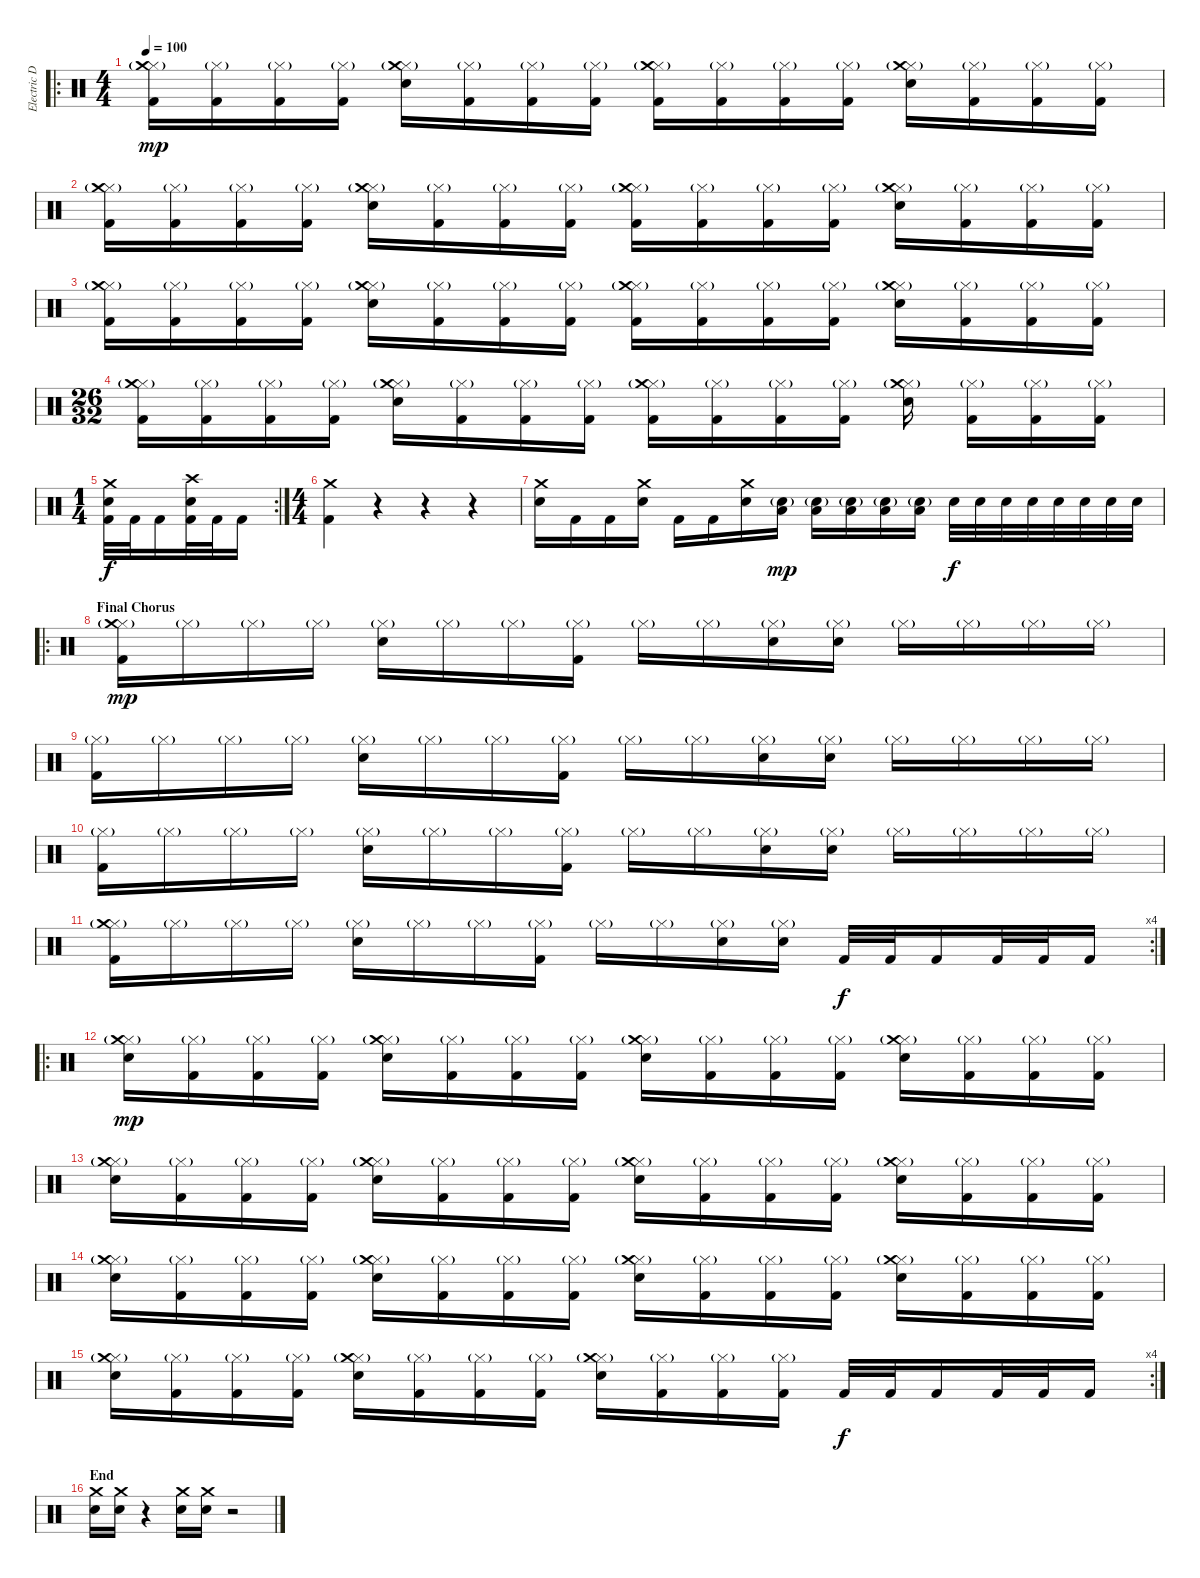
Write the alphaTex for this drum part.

\track ("Electric Drums" "Electric D") {instrument percussion}
\staff {score}
\articulation defaults
\ro
\ts (4 4)
\tempo 100
\clef neutral
\ks c
("Hi-Hat (closed)"{g} "Kick (hit) 2" "Crash medium (hit)").16{dy mp} ("Hi-Hat (closed)"{g} "Kick (hit) 2").16 ("Hi-Hat (closed)"{g} "Kick (hit) 2").16 ("Hi-Hat (closed)"{g} "Kick (hit) 2").16 ("Hi-Hat (closed)"{g} "Snare (hit) 2" "Crash medium (hit)").16 ("Hi-Hat (closed)"{g} "Kick (hit) 2").16 ("Hi-Hat (closed)"{g} "Kick (hit) 2").16 ("Hi-Hat (closed)"{g} "Kick (hit) 2").16 ("Hi-Hat (closed)"{g} "Kick (hit) 2" "Crash medium (hit)").16 ("Hi-Hat (closed)"{g} "Kick (hit) 2").16 ("Hi-Hat (closed)"{g} "Kick (hit) 2").16 ("Hi-Hat (closed)"{g} "Kick (hit) 2").16 ("Hi-Hat (closed)"{g} "Snare (hit) 2" "Crash medium (hit)").16 ("Hi-Hat (closed)"{g} "Kick (hit) 2").16 ("Hi-Hat (closed)"{g} "Kick (hit) 2").16 ("Hi-Hat (closed)"{g} "Kick (hit) 2").16 |
("Hi-Hat (closed)"{g} "Kick (hit) 2" "Crash medium (hit)").16 ("Hi-Hat (closed)"{g} "Kick (hit) 2").16 ("Hi-Hat (closed)"{g} "Kick (hit) 2").16 ("Hi-Hat (closed)"{g} "Kick (hit) 2").16 ("Hi-Hat (closed)"{g} "Snare (hit) 2" "Crash medium (hit)").16 ("Hi-Hat (closed)"{g} "Kick (hit) 2").16 ("Hi-Hat (closed)"{g} "Kick (hit) 2").16 ("Hi-Hat (closed)"{g} "Kick (hit) 2").16 ("Hi-Hat (closed)"{g} "Kick (hit) 2" "Crash medium (hit)").16 ("Hi-Hat (closed)"{g} "Kick (hit) 2").16 ("Hi-Hat (closed)"{g} "Kick (hit) 2").16 ("Hi-Hat (closed)"{g} "Kick (hit) 2").16 ("Hi-Hat (closed)"{g} "Snare (hit) 2" "Crash medium (hit)").16 ("Hi-Hat (closed)"{g} "Kick (hit) 2").16 ("Hi-Hat (closed)"{g} "Kick (hit) 2").16 ("Hi-Hat (closed)"{g} "Kick (hit) 2").16 |
("Hi-Hat (closed)"{g} "Kick (hit) 2" "Crash medium (hit)").16 ("Hi-Hat (closed)"{g} "Kick (hit) 2").16 ("Hi-Hat (closed)"{g} "Kick (hit) 2").16 ("Hi-Hat (closed)"{g} "Kick (hit) 2").16 ("Hi-Hat (closed)"{g} "Snare (hit) 2" "Crash medium (hit)").16 ("Hi-Hat (closed)"{g} "Kick (hit) 2").16 ("Hi-Hat (closed)"{g} "Kick (hit) 2").16 ("Hi-Hat (closed)"{g} "Kick (hit) 2").16 ("Hi-Hat (closed)"{g} "Kick (hit) 2" "Crash medium (hit)").16 ("Hi-Hat (closed)"{g} "Kick (hit) 2").16 ("Hi-Hat (closed)"{g} "Kick (hit) 2").16 ("Hi-Hat (closed)"{g} "Kick (hit) 2").16 ("Hi-Hat (closed)"{g} "Snare (hit) 2" "Crash medium (hit)").16 ("Hi-Hat (closed)"{g} "Kick (hit) 2").16 ("Hi-Hat (closed)"{g} "Kick (hit) 2").16 ("Hi-Hat (closed)"{g} "Kick (hit) 2").16 |
\ts (26 32)
("Hi-Hat (closed)"{g} "Kick (hit) 2" "Crash medium (hit)").16 ("Hi-Hat (closed)"{g} "Kick (hit) 2").16 ("Hi-Hat (closed)"{g} "Kick (hit) 2").16 ("Hi-Hat (closed)"{g} "Kick (hit) 2").16 ("Hi-Hat (closed)"{g} "Snare (hit) 2" "Crash medium (hit)").16 ("Hi-Hat (closed)"{g} "Kick (hit) 2").16 ("Hi-Hat (closed)"{g} "Kick (hit) 2").16 ("Hi-Hat (closed)"{g} "Kick (hit) 2").16 ("Hi-Hat (closed)"{g} "Kick (hit) 2" "Crash medium (hit)").16 ("Hi-Hat (closed)"{g} "Kick (hit) 2").16 ("Hi-Hat (closed)"{g} "Kick (hit) 2").16 ("Hi-Hat (closed)"{g} "Kick (hit) 2").16 ("Hi-Hat (closed)"{g} "Snare (hit) 2" "Crash medium (hit)").16 ("Hi-Hat (closed)"{g} "Kick (hit) 2").16 ("Hi-Hat (closed)"{g} "Kick (hit) 2").16 ("Hi-Hat (closed)"{g} "Kick (hit) 2").16 |
\rc 2
\ts (1 4)
("Crash medium (hit)" "Snare (hit) 2" "Kick (hit) 2").32{dy f} "Kick (hit) 2".32 "Kick (hit) 2".16 ("Crash high (hit)" "Snare (hit) 2" "Kick (hit) 2").32 "Kick (hit) 2".32 "Kick (hit) 2".16 |
\ts (4 4)
("Crash medium (hit)" "Kick (hit) 2").4{volume 0} r.4 r.4 r.4{volume 13} |
("Snare (hit) 2" "Crash medium (hit)").16 "Kick (hit) 2".16 "Kick (hit) 2".16 ("Snare (hit) 2" "Crash medium (hit)").16 "Kick (hit) 2".16 "Kick (hit) 2".16 ("Snare (hit) 2" "Crash medium (hit)").16 ("Low Floor Tom (hit)" "Snare (hit) 2"{g}).16{dy mp} ("Low Floor Tom (hit)" "Snare (hit) 2"{g}).16 ("Low Floor Tom (hit)" "Snare (hit) 2"{g}).16 ("Low Floor Tom (hit)" "Snare (hit) 2"{g}).16 ("Low Floor Tom (hit)" "Snare (hit) 2"{g}).16 "Snare (hit) 2".32{dy f} "Snare (hit) 2".32 "Snare (hit) 2".32 "Snare (hit) 2".32 "Snare (hit) 2".32 "Snare (hit) 2".32 "Snare (hit) 2".32 "Snare (hit) 2".32 |
\ro
\section ("" "Final Chorus")
("Hi-Hat (closed)"{g} "Kick (hit) 2" "Crash medium (hit)").16{dy mp} "Hi-Hat (closed)"{g}.16 "Hi-Hat (closed)"{g}.16 "Hi-Hat (closed)"{g}.16 ("Hi-Hat (closed)"{g} "Snare (hit) 2").16 "Hi-Hat (closed)"{g}.16 "Hi-Hat (closed)"{g}.16 ("Hi-Hat (closed)"{g} "Kick (hit) 2").16 "Hi-Hat (closed)"{g}.16 "Hi-Hat (closed)"{g}.16 ("Hi-Hat (closed)"{g} "Snare (hit) 2").16 ("Hi-Hat (closed)"{g} "Snare (hit) 2").16 "Hi-Hat (closed)"{g}.16 "Hi-Hat (closed)"{g}.16 "Hi-Hat (closed)"{g}.16 "Hi-Hat (closed)"{g}.16 |
("Hi-Hat (closed)"{g} "Kick (hit) 2").16 "Hi-Hat (closed)"{g}.16 "Hi-Hat (closed)"{g}.16 "Hi-Hat (closed)"{g}.16 ("Hi-Hat (closed)"{g} "Snare (hit) 2").16 "Hi-Hat (closed)"{g}.16 "Hi-Hat (closed)"{g}.16 ("Hi-Hat (closed)"{g} "Kick (hit) 2").16 "Hi-Hat (closed)"{g}.16 "Hi-Hat (closed)"{g}.16 ("Hi-Hat (closed)"{g} "Snare (hit) 2").16 ("Hi-Hat (closed)"{g} "Snare (hit) 2").16 "Hi-Hat (closed)"{g}.16 "Hi-Hat (closed)"{g}.16 "Hi-Hat (closed)"{g}.16 "Hi-Hat (closed)"{g}.16 |
("Hi-Hat (closed)"{g} "Kick (hit) 2").16 "Hi-Hat (closed)"{g}.16 "Hi-Hat (closed)"{g}.16 "Hi-Hat (closed)"{g}.16 ("Hi-Hat (closed)"{g} "Snare (hit) 2").16 "Hi-Hat (closed)"{g}.16 "Hi-Hat (closed)"{g}.16 ("Hi-Hat (closed)"{g} "Kick (hit) 2").16 "Hi-Hat (closed)"{g}.16 "Hi-Hat (closed)"{g}.16 ("Hi-Hat (closed)"{g} "Snare (hit) 2").16 ("Hi-Hat (closed)"{g} "Snare (hit) 2").16 "Hi-Hat (closed)"{g}.16 "Hi-Hat (closed)"{g}.16 "Hi-Hat (closed)"{g}.16 "Hi-Hat (closed)"{g}.16 |
\rc 4
("Hi-Hat (closed)"{g} "Kick (hit) 2" "Crash medium (hit)").16 "Hi-Hat (closed)"{g}.16 "Hi-Hat (closed)"{g}.16 "Hi-Hat (closed)"{g}.16 ("Hi-Hat (closed)"{g} "Snare (hit) 2").16 "Hi-Hat (closed)"{g}.16 "Hi-Hat (closed)"{g}.16 ("Hi-Hat (closed)"{g} "Kick (hit) 2").16 "Hi-Hat (closed)"{g}.16 "Hi-Hat (closed)"{g}.16 ("Hi-Hat (closed)"{g} "Snare (hit) 2").16 ("Hi-Hat (closed)"{g} "Snare (hit) 2").16 "Kick (hit) 2".32{dy f} "Kick (hit) 2".32 "Kick (hit) 2".16 "Kick (hit) 2".32 "Kick (hit) 2".32 "Kick (hit) 2".16 |
\ro
("Hi-Hat (closed)"{g} "Snare (hit) 2" "Crash medium (hit)").16{dy mp} ("Hi-Hat (closed)"{g} "Kick (hit) 2").16 ("Hi-Hat (closed)"{g} "Kick (hit) 2").16 ("Hi-Hat (closed)"{g} "Kick (hit) 2").16 ("Hi-Hat (closed)"{g} "Snare (hit) 2" "Crash medium (hit)").16 ("Hi-Hat (closed)"{g} "Kick (hit) 2").16 ("Hi-Hat (closed)"{g} "Kick (hit) 2").16 ("Hi-Hat (closed)"{g} "Kick (hit) 2").16 ("Hi-Hat (closed)"{g} "Snare (hit) 2" "Crash medium (hit)").16 ("Hi-Hat (closed)"{g} "Kick (hit) 2").16 ("Hi-Hat (closed)"{g} "Kick (hit) 2").16 ("Hi-Hat (closed)"{g} "Kick (hit) 2").16 ("Hi-Hat (closed)"{g} "Snare (hit) 2" "Crash medium (hit)").16 ("Hi-Hat (closed)"{g} "Kick (hit) 2").16 ("Hi-Hat (closed)"{g} "Kick (hit) 2").16 ("Hi-Hat (closed)"{g} "Kick (hit) 2").16 |
("Hi-Hat (closed)"{g} "Snare (hit) 2" "Crash medium (hit)").16 ("Hi-Hat (closed)"{g} "Kick (hit) 2").16 ("Hi-Hat (closed)"{g} "Kick (hit) 2").16 ("Hi-Hat (closed)"{g} "Kick (hit) 2").16 ("Hi-Hat (closed)"{g} "Snare (hit) 2" "Crash medium (hit)").16 ("Hi-Hat (closed)"{g} "Kick (hit) 2").16 ("Hi-Hat (closed)"{g} "Kick (hit) 2").16 ("Hi-Hat (closed)"{g} "Kick (hit) 2").16 ("Hi-Hat (closed)"{g} "Snare (hit) 2" "Crash medium (hit)").16 ("Hi-Hat (closed)"{g} "Kick (hit) 2").16 ("Hi-Hat (closed)"{g} "Kick (hit) 2").16 ("Hi-Hat (closed)"{g} "Kick (hit) 2").16 ("Hi-Hat (closed)"{g} "Snare (hit) 2" "Crash medium (hit)").16 ("Hi-Hat (closed)"{g} "Kick (hit) 2").16 ("Hi-Hat (closed)"{g} "Kick (hit) 2").16 ("Hi-Hat (closed)"{g} "Kick (hit) 2").16 |
("Hi-Hat (closed)"{g} "Snare (hit) 2" "Crash medium (hit)").16 ("Hi-Hat (closed)"{g} "Kick (hit) 2").16 ("Hi-Hat (closed)"{g} "Kick (hit) 2").16 ("Hi-Hat (closed)"{g} "Kick (hit) 2").16 ("Hi-Hat (closed)"{g} "Snare (hit) 2" "Crash medium (hit)").16 ("Hi-Hat (closed)"{g} "Kick (hit) 2").16 ("Hi-Hat (closed)"{g} "Kick (hit) 2").16 ("Hi-Hat (closed)"{g} "Kick (hit) 2").16 ("Hi-Hat (closed)"{g} "Snare (hit) 2" "Crash medium (hit)").16 ("Hi-Hat (closed)"{g} "Kick (hit) 2").16 ("Hi-Hat (closed)"{g} "Kick (hit) 2").16 ("Hi-Hat (closed)"{g} "Kick (hit) 2").16 ("Hi-Hat (closed)"{g} "Snare (hit) 2" "Crash medium (hit)").16 ("Hi-Hat (closed)"{g} "Kick (hit) 2").16 ("Hi-Hat (closed)"{g} "Kick (hit) 2").16 ("Hi-Hat (closed)"{g} "Kick (hit) 2").16 |
\rc 4
("Hi-Hat (closed)"{g} "Snare (hit) 2" "Crash medium (hit)").16 ("Hi-Hat (closed)"{g} "Kick (hit) 2").16 ("Hi-Hat (closed)"{g} "Kick (hit) 2").16 ("Hi-Hat (closed)"{g} "Kick (hit) 2").16 ("Hi-Hat (closed)"{g} "Snare (hit) 2" "Crash medium (hit)").16 ("Hi-Hat (closed)"{g} "Kick (hit) 2").16 ("Hi-Hat (closed)"{g} "Kick (hit) 2").16 ("Hi-Hat (closed)"{g} "Kick (hit) 2").16 ("Hi-Hat (closed)"{g} "Snare (hit) 2" "Crash medium (hit)").16 ("Hi-Hat (closed)"{g} "Kick (hit) 2").16 ("Hi-Hat (closed)"{g} "Kick (hit) 2").16 ("Hi-Hat (closed)"{g} "Kick (hit) 2").16 "Kick (hit) 2".32{dy f} "Kick (hit) 2".32 "Kick (hit) 2".16 "Kick (hit) 2".32 "Kick (hit) 2".32 "Kick (hit) 2".16 |
\section ("" "End")
("Crash medium (hit)" "Snare (hit) 2").16 ("Crash medium (hit)" "Snare (hit) 2").16 r.4 ("Crash medium (hit)" "Snare (hit) 2").16 ("Crash medium (hit)" "Snare (hit) 2").16 r.2
